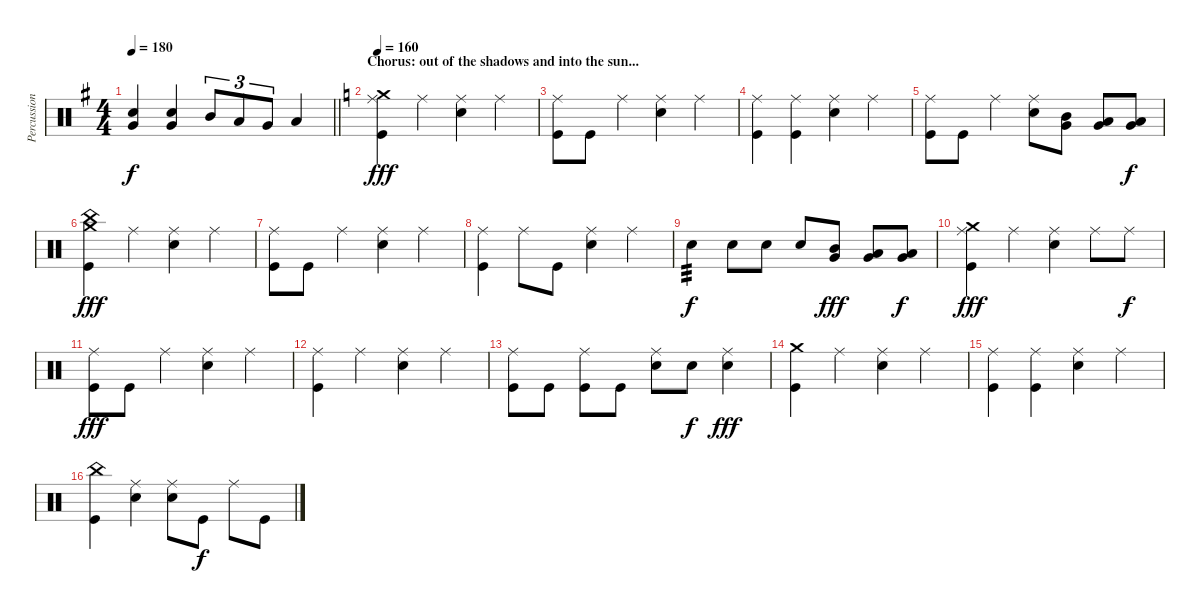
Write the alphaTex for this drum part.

\track ("Percussioni" "Percussion") {instrument percussion}
\staff {score}
\articulation defaults
\ts (4 4)
\tempo 180
\clef neutral
\barLineRight lightlight
\ks g
("Snare (hit) 2" "Very Low Tom (hit)").4{dy f} ("Snare (hit) 2" "Very Low Tom (hit)").4 "Mid Tom (hit)".8{tu (3 2)} "Low Tom (hit)".8{tu (3 2)} "Very Low Tom (hit)".8{tu (3 2)} "Low Floor Tom (hit)".4 |
\section ("" "Chorus: out of the shadows and into the sun...")
\tempo 160
\ks c
("Crash medium (hit)" "Ride (middle)" "Kick (hit)").4{dy fff} "Ride (middle)".4 ("Ride (middle)" "Snare (hit) 2").4 "Ride (middle)".4 |
("Ride (middle)" "Kick (hit)").8 "Kick (hit)".8 "Ride (middle)".4 ("Ride (middle)" "Snare (hit) 2").4 "Ride (middle)".4 |
("Ride (middle)" "Kick (hit)").4 ("Ride (middle)" "Kick (hit)").4 ("Ride (middle)" "Snare (hit) 2").4 "Ride (middle)".4 |
("Ride (middle)" "Kick (hit)").8 "Kick (hit)".8 "Ride (middle)".4 ("Ride (middle)" "Snare (hit) 2").8 ("Mid Tom (hit)" "Very Low Tom (hit)").8 ("Very Low Tom (hit)" "Low Tom (hit)").8 ("Low Floor Tom (hit)" "Very Low Tom (hit)").8{dy f} |
("China (hit)" "Crash medium (hit)" "Kick (hit)").4{dy fff} "Ride (middle)".4 ("Ride (middle)" "Snare (hit) 2").4 "Ride (middle)".4 |
("Ride (middle)" "Kick (hit)").8 "Kick (hit)".8 "Ride (middle)".4 ("Ride (middle)" "Snare (hit) 2").4 "Ride (middle)".4 |
("Ride (middle)" "Kick (hit)").4 "Ride (middle)".8 "Kick (hit)".8 ("Ride (middle)" "Snare (hit) 2").4 "Ride (middle)".4 |
"Snare (hit) 2".4{tp 3 dy f} "Snare (hit) 2".8 "Snare (hit) 2".8 "Snare (hit) 2".8 ("Mid Tom (hit)" "Very Low Tom (hit)").8{dy fff} ("Very Low Tom (hit)" "Low Tom (hit)").8 ("Low Floor Tom (hit)" "Very Low Tom (hit)").8{dy f} |
("Crash medium (hit)" "Ride (middle)" "Kick (hit)").4{dy fff} "Ride (middle)".4 ("Ride (middle)" "Snare (hit) 2").4 "Ride (middle)".8 "Ride (middle)".8{dy f} |
("Ride (middle)" "Kick (hit)").8{dy fff} "Kick (hit)".8 "Ride (middle)".4 ("Ride (middle)" "Snare (hit) 2").4 "Ride (middle)".4 |
("Ride (middle)" "Kick (hit)").4 "Ride (middle)".4 ("Ride (middle)" "Snare (hit) 2").4 "Ride (middle)".4 |
("Ride (middle)" "Kick (hit)").8 "Kick (hit)".8 ("Ride (middle)" "Kick (hit)").8 "Kick (hit)".8 ("Ride (middle)" "Snare (hit) 2").8 "Snare (hit) 2".8{dy f} ("Ride (middle)" "Snare (hit) 2").4{dy fff} |
("Crash medium (hit)" "Kick (hit)").4 "Ride (middle)".4 ("Ride (middle)" "Snare (hit) 2").4 "Ride (middle)".4 |
("Ride (middle)" "Kick (hit)").4 ("Ride (middle)" "Kick (hit)").4 ("Ride (middle)" "Snare (hit) 2").4 "Ride (middle)".4 |
("China (hit)" "Kick (hit)").4 ("Ride (middle)" "Snare (hit) 2").4 ("Ride (middle)" "Snare (hit) 2").8 "Kick (hit)".8{dy f} "Ride (middle)".8 "Kick (hit)".8
